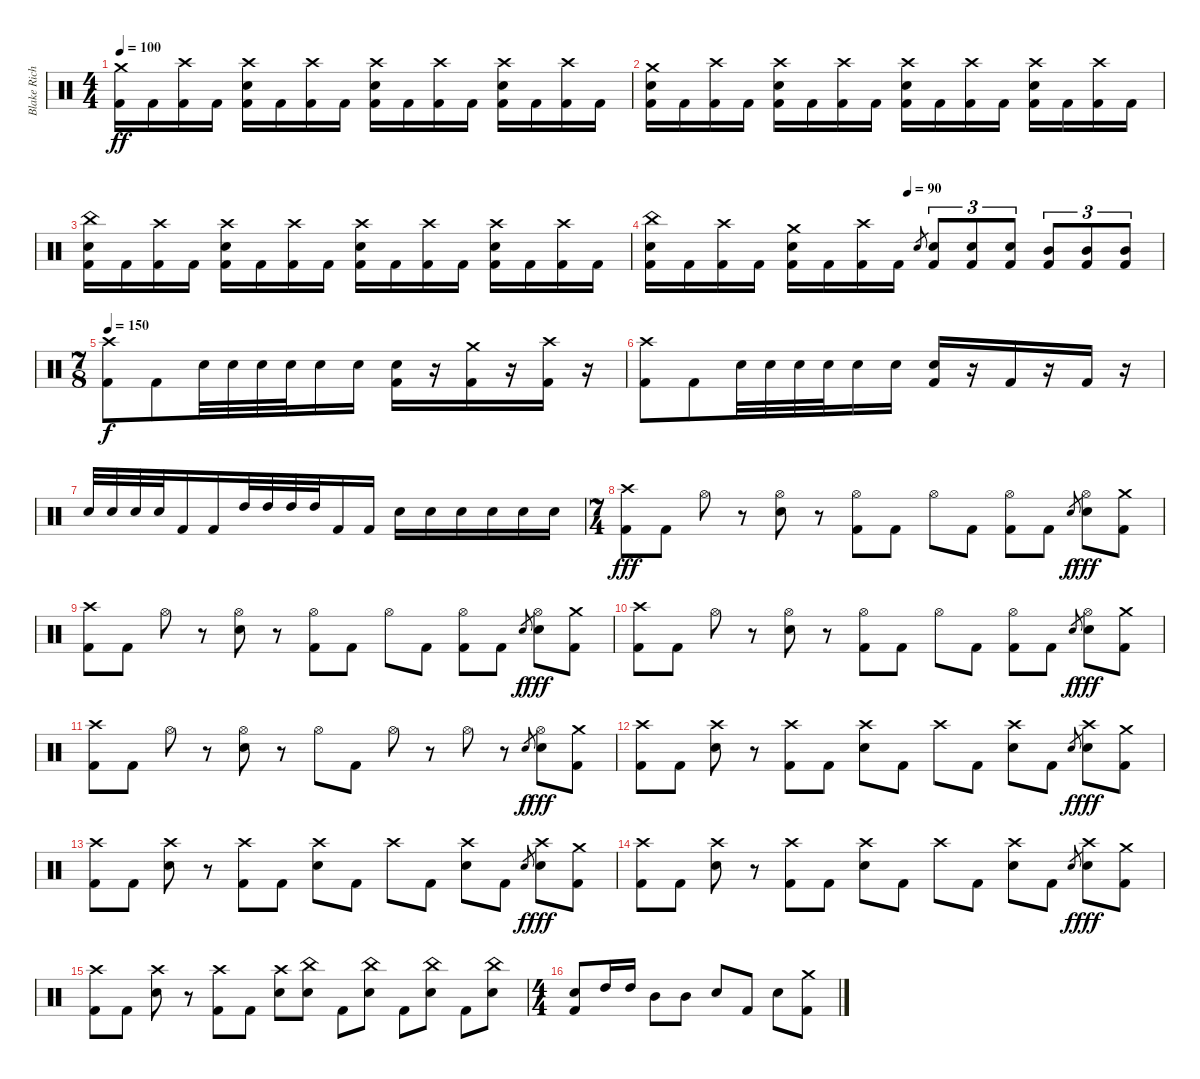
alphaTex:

\track ("Blake Richardson" "Blake Rich") {instrument percussion}
\staff {score}
\articulation defaults
\ts (4 4)
\tempo 100
\clef neutral
\ks c
("Crash medium (hit)" "Kick (hit) 2").16{dy ff} "Kick (hit) 2".16 ("Crash high (hit)" "Kick (hit) 2").16 "Kick (hit) 2".16 ("Crash high (hit)" "Electric Snare (hit)" "Kick (hit) 2").16 "Kick (hit) 2".16 ("Crash high (hit)" "Kick (hit) 2").16 "Kick (hit) 2".16 ("Crash high (hit)" "Electric Snare (hit)" "Kick (hit) 2").16 "Kick (hit) 2".16 ("Crash high (hit)" "Kick (hit) 2").16 "Kick (hit) 2".16 ("Crash high (hit)" "Electric Snare (hit)" "Kick (hit) 2").16 "Kick (hit) 2".16 ("Crash high (hit)" "Kick (hit) 2").16 "Kick (hit) 2".16 |
("Crash medium (hit)" "Electric Snare (hit)" "Kick (hit) 2").16 "Kick (hit) 2".16 ("Crash high (hit)" "Kick (hit) 2").16 "Kick (hit) 2".16 ("Crash high (hit)" "Electric Snare (hit)" "Kick (hit) 2").16 "Kick (hit) 2".16 ("Crash high (hit)" "Kick (hit) 2").16 "Kick (hit) 2".16 ("Crash high (hit)" "Electric Snare (hit)" "Kick (hit) 2").16 "Kick (hit) 2".16 ("Crash high (hit)" "Kick (hit) 2").16 "Kick (hit) 2".16 ("Crash high (hit)" "Electric Snare (hit)" "Kick (hit) 2").16 "Kick (hit) 2".16 ("Crash high (hit)" "Kick (hit) 2").16 "Kick (hit) 2".16 |
("China (hit)" "Electric Snare (hit)" "Kick (hit) 2").16 "Kick (hit) 2".16 ("Crash high (hit)" "Kick (hit) 2").16 "Kick (hit) 2".16 ("Crash high (hit)" "Electric Snare (hit)" "Kick (hit) 2").16 "Kick (hit) 2".16 ("Crash high (hit)" "Kick (hit) 2").16 "Kick (hit) 2".16 ("Crash high (hit)" "Electric Snare (hit)" "Kick (hit) 2").16 "Kick (hit) 2".16 ("Crash high (hit)" "Kick (hit) 2").16 "Kick (hit) 2".16 ("Crash high (hit)" "Electric Snare (hit)" "Kick (hit) 2").16 "Kick (hit) 2".16 ("Crash high (hit)" "Kick (hit) 2").16 "Kick (hit) 2".16 |
\tempo (90 0.5)
("China (hit)" "Electric Snare (hit)" "Kick (hit) 2").16 "Kick (hit) 2".16 ("Crash high (hit)" "Kick (hit) 2").16 "Kick (hit) 2".16 ("Crash medium (hit)" "Electric Snare (hit)" "Kick (hit) 2").16 "Kick (hit) 2".16 ("Crash high (hit)" "Kick (hit) 2").16 "Kick (hit) 2".16 "Electric Snare (hit)".8{gr} ("Electric Snare (hit)" "Kick (hit) 2").8{tu (3 2)} ("Electric Snare (hit)" "Kick (hit) 2").8{tu (3 2)} ("Electric Snare (hit)" "Kick (hit) 2").8{tu (3 2)} ("Mid Tom (hit)" "Kick (hit) 2").8{tu (3 2)} ("Mid Tom (hit)" "Kick (hit) 2").8{tu (3 2)} ("Mid Tom (hit)" "Kick (hit) 2").8{tu (3 2)} |
\ts (7 8)
\tempo 150
("Crash high (hit)" "Kick (hit) 2").8{dy f} "Kick (hit) 2".8 "Electric Snare (hit)".32 "Electric Snare (hit)".32 "Electric Snare (hit)".32 "Electric Snare (hit)".32 "Electric Snare (hit)".16 "Electric Snare (hit)".16 ("Electric Snare (hit)" "Kick (hit) 2").16 r.16 ("Crash medium (hit)" "Kick (hit) 2").16 r.16 ("Crash high (hit)" "Kick (hit) 2").16 r.16 |
("Crash high (hit)" "Kick (hit) 2").8 "Kick (hit) 2".8 "Electric Snare (hit)".32 "Electric Snare (hit)".32 "Electric Snare (hit)".32 "Electric Snare (hit)".32 "Electric Snare (hit)".16 "Electric Snare (hit)".16 ("Electric Snare (hit)" "Kick (hit) 2").16 r.16 "Kick (hit) 2".16 r.16 "Kick (hit) 2".16 r.16 |
"Electric Snare (hit)".32 "Electric Snare (hit)".32 "Electric Snare (hit)".32 "Electric Snare (hit)".32 "Kick (hit) 2".16 "Kick (hit) 2".16 "High Tom (hit)".32 "High Tom (hit)".32 "High Tom (hit)".32 "High Tom (hit)".32 "Kick (hit) 2".16 "Kick (hit) 2".16 "Electric Snare (hit)".16 "Electric Snare (hit)".16 "Electric Snare (hit)".16 "Electric Snare (hit)".16 "Electric Snare (hit)".16 "Electric Snare (hit)".16 |
\ts (7 4)
("Crash high (hit)" "Kick (hit) 2").8{dy fff} "Kick (hit) 2".8 "Hi-Hat (open)".8 r.8 ("Hi-Hat (open)" "Electric Snare (hit)").8 r.8 ("Hi-Hat (open)" "Kick (hit) 2").8 "Kick (hit) 2".8 "Hi-Hat (open)".8 "Kick (hit) 2".8 ("Hi-Hat (open)" "Kick (hit) 2").8 "Kick (hit) 2".8 "Electric Snare (hit)".8{gr dy f} ("Hi-Hat (open)" "Electric Snare (hit)").8{dy fff} ("Crash medium (hit)" "Kick (hit) 2").8 |
("Crash high (hit)" "Kick (hit) 2").8 "Kick (hit) 2".8 "Hi-Hat (open)".8 r.8 ("Hi-Hat (open)" "Electric Snare (hit)").8 r.8 ("Hi-Hat (open)" "Kick (hit) 2").8 "Kick (hit) 2".8 "Hi-Hat (open)".8 "Kick (hit) 2".8 ("Hi-Hat (open)" "Kick (hit) 2").8 "Kick (hit) 2".8 "Electric Snare (hit)".8{gr dy f} ("Hi-Hat (open)" "Electric Snare (hit)").8{dy fff} ("Crash medium (hit)" "Kick (hit) 2").8 |
("Crash high (hit)" "Kick (hit) 2").8 "Kick (hit) 2".8 "Hi-Hat (open)".8 r.8 ("Hi-Hat (open)" "Electric Snare (hit)").8 r.8 ("Hi-Hat (open)" "Kick (hit) 2").8 "Kick (hit) 2".8 "Hi-Hat (open)".8 "Kick (hit) 2".8 ("Hi-Hat (open)" "Kick (hit) 2").8 "Kick (hit) 2".8 "Electric Snare (hit)".8{gr dy f} ("Hi-Hat (open)" "Electric Snare (hit)").8{dy fff} ("Crash medium (hit)" "Kick (hit) 2").8 |
("Crash high (hit)" "Kick (hit) 2").8 "Kick (hit) 2".8 "Hi-Hat (open)".8 r.8 ("Hi-Hat (open)" "Electric Snare (hit)").8 r.8 "Hi-Hat (open)".8 "Kick (hit) 2".8 "Hi-Hat (open)".8 r.8 "Hi-Hat (open)".8 r.8 "Electric Snare (hit)".8{gr dy f} ("Hi-Hat (open)" "Electric Snare (hit)").8{dy fff} ("Crash medium (hit)" "Kick (hit) 2").8 |
("Crash high (hit)" "Kick (hit) 2").8 "Kick (hit) 2".8 ("Crash high (hit)" "Electric Snare (hit)").8 r.8 ("Crash high (hit)" "Kick (hit) 2").8 "Kick (hit) 2".8 ("Crash high (hit)" "Electric Snare (hit)").8 "Kick (hit) 2".8 "Crash high (hit)".8 "Kick (hit) 2".8 ("Crash high (hit)" "Electric Snare (hit)").8 "Kick (hit) 2".8 "Electric Snare (hit)".8{gr dy f} ("Crash high (hit)" "Electric Snare (hit)").8{dy fff} ("Crash medium (hit)" "Kick (hit) 2").8 |
("Crash high (hit)" "Kick (hit) 2").8 "Kick (hit) 2".8 ("Crash high (hit)" "Electric Snare (hit)").8 r.8 ("Crash high (hit)" "Kick (hit) 2").8 "Kick (hit) 2".8 ("Crash high (hit)" "Electric Snare (hit)").8 "Kick (hit) 2".8 "Crash high (hit)".8 "Kick (hit) 2".8 ("Crash high (hit)" "Electric Snare (hit)").8 "Kick (hit) 2".8 "Electric Snare (hit)".8{gr dy f} ("Crash high (hit)" "Electric Snare (hit)").8{dy fff} ("Crash medium (hit)" "Kick (hit) 2").8 |
("Crash high (hit)" "Kick (hit) 2").8 "Kick (hit) 2".8 ("Crash high (hit)" "Electric Snare (hit)").8 r.8 ("Crash high (hit)" "Kick (hit) 2").8 "Kick (hit) 2".8 ("Crash high (hit)" "Electric Snare (hit)").8 "Kick (hit) 2".8 "Crash high (hit)".8 "Kick (hit) 2".8 ("Crash high (hit)" "Electric Snare (hit)").8 "Kick (hit) 2".8 "Electric Snare (hit)".8{gr dy f} ("Crash high (hit)" "Electric Snare (hit)").8{dy fff} ("Crash medium (hit)" "Kick (hit) 2").8 |
("Crash high (hit)" "Kick (hit) 2").8 "Kick (hit) 2".8 ("Crash high (hit)" "Electric Snare (hit)").8 r.8 ("Crash high (hit)" "Kick (hit) 2").8 "Kick (hit) 2".8 ("Crash high (hit)" "Electric Snare (hit)").8 ("China (hit)" "Electric Snare (hit)").8 "Kick (hit) 2".8 ("China (hit)" "Electric Snare (hit)").8 "Kick (hit) 2".8 ("China (hit)" "Electric Snare (hit)").8 "Kick (hit) 2".8 ("China (hit)" "Electric Snare (hit)").8 |
\ts (4 4)
("Electric Snare (hit)" "Kick (hit) 2").8 "High Tom (hit)".16 "High Tom (hit)".16 "Mid Tom (hit)".8 "Mid Tom (hit)".8 "Electric Snare (hit)".8 "Kick (hit) 2".8 "Electric Snare (hit)".8 ("Crash medium (hit)" "Kick (hit) 2").8
